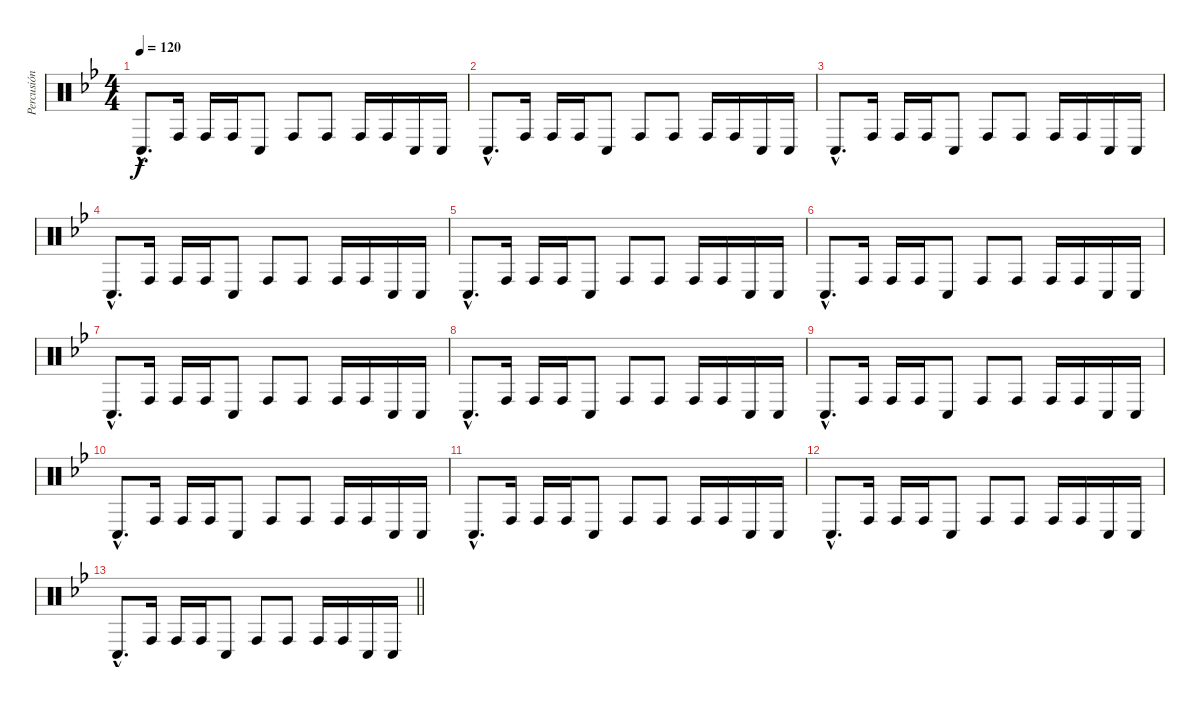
\track ("Percusión" "Percusión") {instrument percussion}
\staff {score}
\articulation defaults
\ts (4 4)
\tempo 120
\clef neutral
\ks bb "Conga low (hit)"{hac}.8{d dy f} "Conga high (hit)".16 "Conga high (hit)".16 "Conga high (hit)".16 "Conga low (hit)".8 "Conga high (hit)".8 "Conga high (hit)".8 "Conga high (hit)".16 "Conga high (hit)".16 "Conga low (hit)".16 "Conga low (hit)".16
|
"Conga low (hit)"{hac}.8{d} "Conga high (hit)".16 "Conga high (hit)".16 "Conga high (hit)".16 "Conga low (hit)".8 "Conga high (hit)".8 "Conga high (hit)".8 "Conga high (hit)".16 "Conga high (hit)".16 "Conga low (hit)".16 "Conga low (hit)".16 |
"Conga low (hit)"{hac}.8{d} "Conga high (hit)".16 "Conga high (hit)".16 "Conga high (hit)".16 "Conga low (hit)".8 "Conga high (hit)".8 "Conga high (hit)".8 "Conga high (hit)".16 "Conga high (hit)".16 "Conga low (hit)".16 "Conga low (hit)".16 |
"Conga low (hit)"{hac}.8{d} "Conga high (hit)".16 "Conga high (hit)".16 "Conga high (hit)".16 "Conga low (hit)".8 "Conga high (hit)".8 "Conga high (hit)".8 "Conga high (hit)".16 "Conga high (hit)".16 "Conga low (hit)".16 "Conga low (hit)".16 |
"Conga low (hit)"{hac}.8{d} "Conga high (hit)".16 "Conga high (hit)".16 "Conga high (hit)".16 "Conga low (hit)".8 "Conga high (hit)".8 "Conga high (hit)".8 "Conga high (hit)".16 "Conga high (hit)".16 "Conga low (hit)".16 "Conga low (hit)".16 |
"Conga low (hit)"{hac}.8{d} "Conga high (hit)".16 "Conga high (hit)".16 "Conga high (hit)".16 "Conga low (hit)".8 "Conga high (hit)".8 "Conga high (hit)".8 "Conga high (hit)".16 "Conga high (hit)".16 "Conga low (hit)".16 "Conga low (hit)".16 |
"Conga low (hit)"{hac}.8{d} "Conga high (hit)".16 "Conga high (hit)".16 "Conga high (hit)".16 "Conga low (hit)".8 "Conga high (hit)".8 "Conga high (hit)".8 "Conga high (hit)".16 "Conga high (hit)".16 "Conga low (hit)".16 "Conga low (hit)".16 |
"Conga low (hit)"{hac}.8{d} "Conga high (hit)".16 "Conga high (hit)".16 "Conga high (hit)".16 "Conga low (hit)".8 "Conga high (hit)".8 "Conga high (hit)".8 "Conga high (hit)".16 "Conga high (hit)".16 "Conga low (hit)".16 "Conga low (hit)".16 |
"Conga low (hit)"{hac}.8{d} "Conga high (hit)".16 "Conga high (hit)".16 "Conga high (hit)".16 "Conga low (hit)".8 "Conga high (hit)".8 "Conga high (hit)".8 "Conga high (hit)".16 "Conga high (hit)".16 "Conga low (hit)".16 "Conga low (hit)".16 |
"Conga low (hit)"{hac}.8{d} "Conga high (hit)".16 "Conga high (hit)".16 "Conga high (hit)".16 "Conga low (hit)".8 "Conga high (hit)".8 "Conga high (hit)".8 "Conga high (hit)".16 "Conga high (hit)".16 "Conga low (hit)".16 "Conga low (hit)".16 |
"Conga low (hit)"{hac}.8{d} "Conga high (hit)".16 "Conga high (hit)".16 "Conga high (hit)".16 "Conga low (hit)".8 "Conga high (hit)".8 "Conga high (hit)".8 "Conga high (hit)".16 "Conga high (hit)".16 "Conga low (hit)".16 "Conga low (hit)".16 |
"Conga low (hit)"{hac}.8{d} "Conga high (hit)".16 "Conga high (hit)".16 "Conga high (hit)".16 "Conga low (hit)".8 "Conga high (hit)".8 "Conga high (hit)".8 "Conga high (hit)".16 "Conga high (hit)".16 "Conga low (hit)".16 "Conga low (hit)".16 |
\barLineRight lightlight "Conga low (hit)"{hac}.8{d} "Conga high (hit)".16 "Conga high (hit)".16 "Conga high (hit)".16 "Conga low (hit)".8 "Conga high (hit)".8 "Conga high (hit)".8 "Conga high (hit)".16 "Conga high (hit)".16 "Conga low (hit)".16 "Conga low (hit)".16
